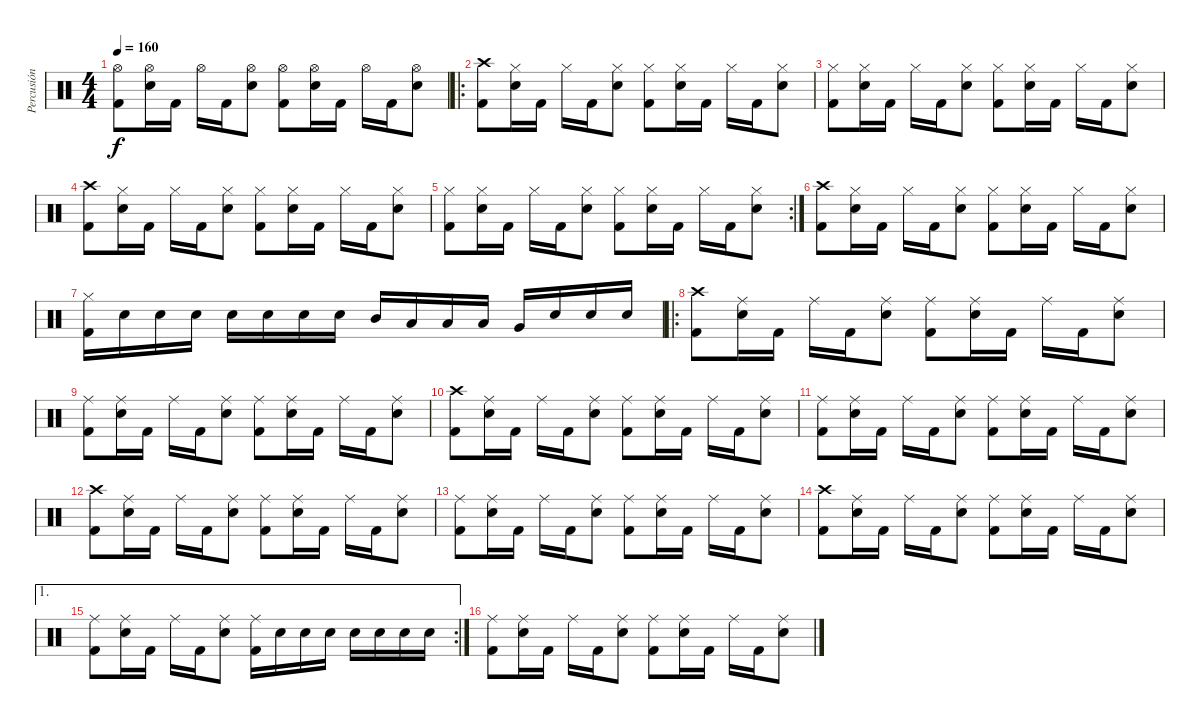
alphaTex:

\track ("Percusión" "Percusión") {instrument percussion}
\staff {score}
\articulation defaults
\ts (4 4)
\tempo 160
\clef neutral
\ks c
("Hi-Hat (open)" "Kick (hit) 2").8{dy f} ("Hi-Hat (open)" "Electric Snare (hit)").16 "Kick (hit) 2".16 "Hi-Hat (open)".16 "Kick (hit) 2".16 ("Hi-Hat (open)" "Electric Snare (hit)").8 ("Hi-Hat (open)" "Kick (hit) 2").8 ("Hi-Hat (open)" "Electric Snare (hit)").16 "Kick (hit) 2".16 "Hi-Hat (open)".16 "Kick (hit) 2".16 ("Hi-Hat (open)" "Electric Snare (hit)").8 |
\ro
("Crash high (hit)" "Kick (hit) 2").8 ("Hi-Hat (closed)" "Electric Snare (hit)").16 "Kick (hit) 2".16 "Hi-Hat (closed)".16 "Kick (hit) 2".16 ("Hi-Hat (closed)" "Electric Snare (hit)").8 ("Hi-Hat (closed)" "Kick (hit) 2").8 ("Hi-Hat (closed)" "Electric Snare (hit)").16 "Kick (hit) 2".16 "Hi-Hat (closed)".16 "Kick (hit) 2".16 ("Hi-Hat (closed)" "Electric Snare (hit)").8 |
("Hi-Hat (closed)" "Kick (hit) 2").8 ("Hi-Hat (closed)" "Electric Snare (hit)").16 "Kick (hit) 2".16 "Hi-Hat (closed)".16 "Kick (hit) 2".16 ("Hi-Hat (closed)" "Electric Snare (hit)").8 ("Hi-Hat (closed)" "Kick (hit) 2").8 ("Hi-Hat (closed)" "Electric Snare (hit)").16 "Kick (hit) 2".16 "Hi-Hat (closed)".16 "Kick (hit) 2".16 ("Hi-Hat (closed)" "Electric Snare (hit)").8 |
("Crash high (hit)" "Kick (hit) 2").8 ("Hi-Hat (closed)" "Electric Snare (hit)").16 "Kick (hit) 2".16 "Hi-Hat (closed)".16 "Kick (hit) 2".16 ("Hi-Hat (closed)" "Electric Snare (hit)").8 ("Hi-Hat (closed)" "Kick (hit) 2").8 ("Hi-Hat (closed)" "Electric Snare (hit)").16 "Kick (hit) 2".16 "Hi-Hat (closed)".16 "Kick (hit) 2".16 ("Hi-Hat (closed)" "Electric Snare (hit)").8 |
\rc 2
("Hi-Hat (closed)" "Kick (hit) 2").8 ("Hi-Hat (closed)" "Electric Snare (hit)").16 "Kick (hit) 2".16 "Hi-Hat (closed)".16 "Kick (hit) 2".16 ("Hi-Hat (closed)" "Electric Snare (hit)").8 ("Hi-Hat (closed)" "Kick (hit) 2").8 ("Hi-Hat (closed)" "Electric Snare (hit)").16 "Kick (hit) 2".16 "Hi-Hat (closed)".16 "Kick (hit) 2".16 ("Hi-Hat (closed)" "Electric Snare (hit)").8 |
("Crash high (hit)" "Kick (hit) 2").8 ("Hi-Hat (closed)" "Electric Snare (hit)").16 "Kick (hit) 2".16 "Hi-Hat (closed)".16 "Kick (hit) 2".16 ("Hi-Hat (closed)" "Electric Snare (hit)").8 ("Hi-Hat (closed)" "Kick (hit) 2").8 ("Hi-Hat (closed)" "Electric Snare (hit)").16 "Kick (hit) 2".16 "Hi-Hat (closed)".16 "Kick (hit) 2".16 ("Hi-Hat (closed)" "Electric Snare (hit)").8 |
("Hi-Hat (closed)" "Kick (hit) 2").16 "Electric Snare (hit)".16 "Electric Snare (hit)".16 "Electric Snare (hit)".16 "Electric Snare (hit)".16 "Electric Snare (hit)".16 "Electric Snare (hit)".16 "Electric Snare (hit)".16 "Mid Tom (hit)".16 "Low Tom (hit)".16 "Low Tom (hit)".16 "Low Tom (hit)".16 "Very Low Tom (hit)".16 "Electric Snare (hit)".16 "Electric Snare (hit)".16 "Electric Snare (hit)".16 |
\ro
("Crash high (hit)" "Kick (hit) 2").8 ("Ride (middle)" "Electric Snare (hit)").16 "Kick (hit) 2".16 "Ride (middle)".16 "Kick (hit) 2".16 ("Ride (middle)" "Electric Snare (hit)").8 ("Ride (middle)" "Kick (hit) 2").8 ("Ride (middle)" "Electric Snare (hit)").16 "Kick (hit) 2".16 "Ride (middle)".16 "Kick (hit) 2".16 ("Ride (middle)" "Electric Snare (hit)").8 |
("Ride (middle)" "Kick (hit) 2").8 ("Ride (middle)" "Electric Snare (hit)").16 "Kick (hit) 2".16 "Ride (middle)".16 "Kick (hit) 2".16 ("Ride (middle)" "Electric Snare (hit)").8 ("Ride (middle)" "Kick (hit) 2").8 ("Ride (middle)" "Electric Snare (hit)").16 "Kick (hit) 2".16 "Ride (middle)".16 "Kick (hit) 2".16 ("Ride (middle)" "Electric Snare (hit)").8 |
("Crash high (hit)" "Kick (hit) 2").8 ("Ride (middle)" "Electric Snare (hit)").16 "Kick (hit) 2".16 "Ride (middle)".16 "Kick (hit) 2".16 ("Ride (middle)" "Electric Snare (hit)").8 ("Ride (middle)" "Kick (hit) 2").8 ("Ride (middle)" "Electric Snare (hit)").16 "Kick (hit) 2".16 "Ride (middle)".16 "Kick (hit) 2".16 ("Ride (middle)" "Electric Snare (hit)").8 |
("Ride (middle)" "Kick (hit) 2").8 ("Ride (middle)" "Electric Snare (hit)").16 "Kick (hit) 2".16 "Ride (middle)".16 "Kick (hit) 2".16 ("Ride (middle)" "Electric Snare (hit)").8 ("Ride (middle)" "Kick (hit) 2").8 ("Ride (middle)" "Electric Snare (hit)").16 "Kick (hit) 2".16 "Ride (middle)".16 "Kick (hit) 2".16 ("Ride (middle)" "Electric Snare (hit)").8 |
("Crash high (hit)" "Kick (hit) 2").8 ("Ride (middle)" "Electric Snare (hit)").16 "Kick (hit) 2".16 "Ride (middle)".16 "Kick (hit) 2".16 ("Ride (middle)" "Electric Snare (hit)").8 ("Ride (middle)" "Kick (hit) 2").8 ("Ride (middle)" "Electric Snare (hit)").16 "Kick (hit) 2".16 "Ride (middle)".16 "Kick (hit) 2".16 ("Ride (middle)" "Electric Snare (hit)").8 |
("Ride (middle)" "Kick (hit) 2").8 ("Ride (middle)" "Electric Snare (hit)").16 "Kick (hit) 2".16 "Ride (middle)".16 "Kick (hit) 2".16 ("Ride (middle)" "Electric Snare (hit)").8 ("Ride (middle)" "Kick (hit) 2").8 ("Ride (middle)" "Electric Snare (hit)").16 "Kick (hit) 2".16 "Ride (middle)".16 "Kick (hit) 2".16 ("Ride (middle)" "Electric Snare (hit)").8 |
("Crash high (hit)" "Kick (hit) 2").8 ("Ride (middle)" "Electric Snare (hit)").16 "Kick (hit) 2".16 "Ride (middle)".16 "Kick (hit) 2".16 ("Ride (middle)" "Electric Snare (hit)").8 ("Ride (middle)" "Kick (hit) 2").8 ("Ride (middle)" "Electric Snare (hit)").16 "Kick (hit) 2".16 "Ride (middle)".16 "Kick (hit) 2".16 ("Ride (middle)" "Electric Snare (hit)").8 |
\ae 1
\rc 2
("Ride (middle)" "Kick (hit) 2").8 ("Ride (middle)" "Electric Snare (hit)").16 "Kick (hit) 2".16 "Ride (middle)".16 "Kick (hit) 2".16 ("Ride (middle)" "Electric Snare (hit)").8 ("Ride (middle)" "Kick (hit) 2").16 "Electric Snare (hit)".16 "Electric Snare (hit)".16 "Electric Snare (hit)".16 "Electric Snare (hit)".16 "Electric Snare (hit)".16 "Electric Snare (hit)".16 "Electric Snare (hit)".16 |
("Ride (middle)" "Kick (hit) 2").8 ("Ride (middle)" "Electric Snare (hit)").16 "Kick (hit) 2".16 "Ride (middle)".16 "Kick (hit) 2".16 ("Ride (middle)" "Electric Snare (hit)").8 ("Ride (middle)" "Kick (hit) 2").8 ("Ride (middle)" "Electric Snare (hit)").16 "Kick (hit) 2".16 "Ride (middle)".16 "Kick (hit) 2".16 ("Ride (middle)" "Electric Snare (hit)").8
